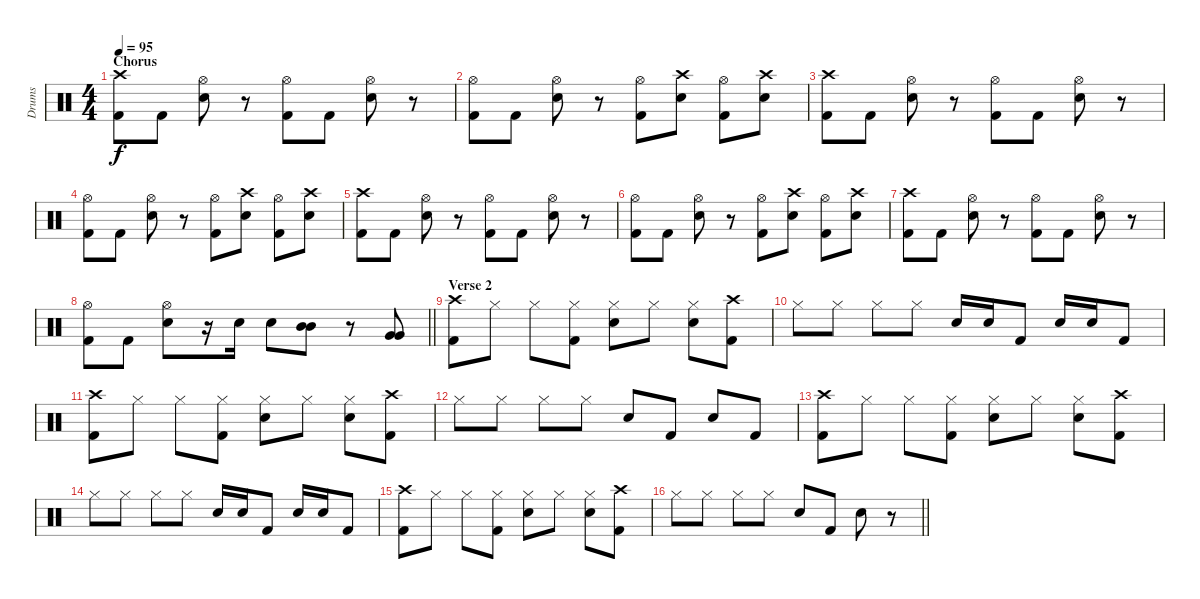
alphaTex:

\track ("Drums" "Drums") {instrument percussion}
\staff {score}
\articulation defaults
\ts (4 4)
\section ("" "Chorus")
\tempo 95
\clef neutral
\ks c
("Crash high (hit)" "Kick (hit) 2").8{dy f} "Kick (hit) 2".8 ("Hi-Hat (open)" "Snare (hit) 2").8 r.8 ("Hi-Hat (open)" "Kick (hit) 2").8 "Kick (hit) 2".8 ("Hi-Hat (open)" "Snare (hit) 2").8 r.8 |
("Hi-Hat (open)" "Kick (hit) 2").8 "Kick (hit) 2".8 ("Hi-Hat (open)" "Snare (hit) 2").8 r.8 ("Hi-Hat (open)" "Kick (hit) 2").8 ("Crash high (hit)" "Snare (hit) 2").8 ("Hi-Hat (open)" "Kick (hit) 2").8 ("Crash high (hit)" "Snare (hit) 2").8 |
("Crash high (hit)" "Kick (hit) 2").8 "Kick (hit) 2".8 ("Hi-Hat (open)" "Snare (hit) 2").8 r.8 ("Hi-Hat (open)" "Kick (hit) 2").8 "Kick (hit) 2".8 ("Hi-Hat (open)" "Snare (hit) 2").8 r.8 |
("Hi-Hat (open)" "Kick (hit) 2").8 "Kick (hit) 2".8 ("Hi-Hat (open)" "Snare (hit) 2").8 r.8 ("Hi-Hat (open)" "Kick (hit) 2").8 ("Crash high (hit)" "Snare (hit) 2").8 ("Hi-Hat (open)" "Kick (hit) 2").8 ("Crash high (hit)" "Snare (hit) 2").8 |
("Crash high (hit)" "Kick (hit) 2").8 "Kick (hit) 2".8 ("Hi-Hat (open)" "Snare (hit) 2").8 r.8 ("Hi-Hat (open)" "Kick (hit) 2").8 "Kick (hit) 2".8 ("Hi-Hat (open)" "Snare (hit) 2").8 r.8 |
("Hi-Hat (open)" "Kick (hit) 2").8 "Kick (hit) 2".8 ("Hi-Hat (open)" "Snare (hit) 2").8 r.8 ("Hi-Hat (open)" "Kick (hit) 2").8 ("Crash high (hit)" "Snare (hit) 2").8 ("Hi-Hat (open)" "Kick (hit) 2").8 ("Crash high (hit)" "Snare (hit) 2").8 |
("Crash high (hit)" "Kick (hit) 2").8 "Kick (hit) 2".8 ("Hi-Hat (open)" "Snare (hit) 2").8 r.8 ("Hi-Hat (open)" "Kick (hit) 2").8 "Kick (hit) 2".8 ("Hi-Hat (open)" "Snare (hit) 2").8 r.8 |
\barLineRight lightlight
("Hi-Hat (open)" "Kick (hit) 2").8 "Kick (hit) 2".8 ("Hi-Hat (open)" "Snare (hit) 2").8 r.16 "Snare (hit) 2".16 "Snare (hit) 2".8 ("Mid Tom (hit)" "Mid Tom (hit)").8 r.8 ("Very Low Tom (hit)" "Very Low Tom (hit)").8 |
\section ("" "Verse 2")
("Crash high (hit)" "Kick (hit) 2").8 "Hi-Hat (closed)".8 "Hi-Hat (closed)".8 ("Hi-Hat (closed)" "Kick (hit) 2").8 ("Hi-Hat (closed)" "Snare (hit) 2").8 "Hi-Hat (closed)".8 ("Hi-Hat (closed)" "Snare (hit) 2").8 ("Crash high (hit)" "Kick (hit) 2").8 |
"Hi-Hat (closed)".8 "Hi-Hat (closed)".8 "Hi-Hat (closed)".8 "Hi-Hat (closed)".8 "Snare (hit) 2".16 "Snare (hit) 2".16 "Kick (hit) 2".8 "Snare (hit) 2".16 "Snare (hit) 2".16 "Kick (hit) 2".8 |
("Crash high (hit)" "Kick (hit) 2").8 "Hi-Hat (closed)".8 "Hi-Hat (closed)".8 ("Hi-Hat (closed)" "Kick (hit) 2").8 ("Hi-Hat (closed)" "Snare (hit) 2").8 "Hi-Hat (closed)".8 ("Hi-Hat (closed)" "Snare (hit) 2").8 ("Crash high (hit)" "Kick (hit) 2").8 |
"Hi-Hat (closed)".8 "Hi-Hat (closed)".8 "Hi-Hat (closed)".8 "Hi-Hat (closed)".8 "Snare (hit) 2".8 "Kick (hit) 2".8 "Snare (hit) 2".8 "Kick (hit) 2".8 |
("Crash high (hit)" "Kick (hit) 2").8 "Hi-Hat (closed)".8 "Hi-Hat (closed)".8 ("Hi-Hat (closed)" "Kick (hit) 2").8 ("Hi-Hat (closed)" "Snare (hit) 2").8 "Hi-Hat (closed)".8 ("Hi-Hat (closed)" "Snare (hit) 2").8 ("Crash high (hit)" "Kick (hit) 2").8 |
"Hi-Hat (closed)".8 "Hi-Hat (closed)".8 "Hi-Hat (closed)".8 "Hi-Hat (closed)".8 "Snare (hit) 2".16 "Snare (hit) 2".16 "Kick (hit) 2".8 "Snare (hit) 2".16 "Snare (hit) 2".16 "Kick (hit) 2".8 |
("Crash high (hit)" "Kick (hit) 2").8 "Hi-Hat (closed)".8 "Hi-Hat (closed)".8 ("Hi-Hat (closed)" "Kick (hit) 2").8 ("Hi-Hat (closed)" "Snare (hit) 2").8 "Hi-Hat (closed)".8 ("Hi-Hat (closed)" "Snare (hit) 2").8 ("Crash high (hit)" "Kick (hit) 2").8 |
\barLineRight lightlight "Hi-Hat (closed)".8 "Hi-Hat (closed)".8 "Hi-Hat (closed)".8 "Hi-Hat (closed)".8 "Snare (hit) 2".8 "Kick (hit) 2".8 "Snare (hit) 2".8
r.8
